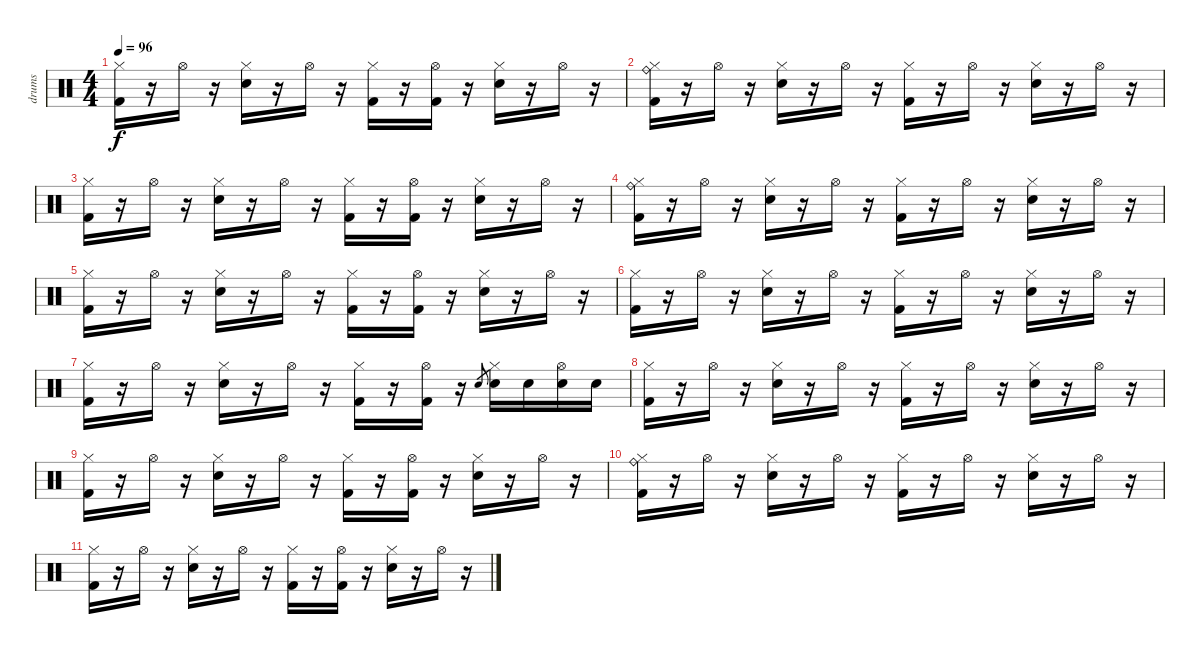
\track ("drums" "drums") {instrument percussion}
\staff {score}
\articulation defaults
\ts (4 4)
\tempo 96
\clef neutral
\ks c
("Kick (hit) 2" "Hi-Hat (closed)").16{dy f} r.16 "Hi-Hat (open)".16 r.16 ("Hi-Hat (closed)" "Electric Snare (hit)").16 r.16 "Hi-Hat (open)".16 r.16 ("Kick (hit) 2" "Hi-Hat (closed)").16 r.16 ("Kick (hit) 2" "Hi-Hat (open)").16 r.16 ("Hi-Hat (closed)" "Electric Snare (hit)").16 r.16 "Hi-Hat (open)".16 r.16 |
("Kick (hit) 2" "Hi-Hat (closed)" "Ride (bell)").16 r.16 "Hi-Hat (open)".16 r.16 ("Hi-Hat (closed)" "Electric Snare (hit)").16 r.16 "Hi-Hat (open)".16 r.16 ("Kick (hit) 2" "Hi-Hat (closed)").16 r.16 "Hi-Hat (open)".16 r.16 ("Hi-Hat (closed)" "Electric Snare (hit)").16 r.16 "Hi-Hat (open)".16 r.16 |
("Kick (hit) 2" "Hi-Hat (closed)").16 r.16 "Hi-Hat (open)".16 r.16 ("Hi-Hat (closed)" "Electric Snare (hit)").16 r.16 "Hi-Hat (open)".16 r.16 ("Kick (hit) 2" "Hi-Hat (closed)").16 r.16 ("Kick (hit) 2" "Hi-Hat (open)").16 r.16 ("Hi-Hat (closed)" "Electric Snare (hit)").16 r.16 "Hi-Hat (open)".16 r.16 |
("Kick (hit) 2" "Hi-Hat (closed)" "Ride (bell)").16 r.16 "Hi-Hat (open)".16 r.16 ("Hi-Hat (closed)" "Electric Snare (hit)").16 r.16 "Hi-Hat (open)".16 r.16 ("Kick (hit) 2" "Hi-Hat (closed)").16 r.16 "Hi-Hat (open)".16 r.16 ("Hi-Hat (closed)" "Electric Snare (hit)").16 r.16 "Hi-Hat (open)".16 r.16 |
("Kick (hit) 2" "Hi-Hat (closed)").16 r.16 "Hi-Hat (open)".16 r.16 ("Hi-Hat (closed)" "Electric Snare (hit)").16 r.16 "Hi-Hat (open)".16 r.16 ("Kick (hit) 2" "Hi-Hat (closed)").16 r.16 ("Kick (hit) 2" "Hi-Hat (open)").16 r.16 ("Hi-Hat (closed)" "Electric Snare (hit)").16 r.16 "Hi-Hat (open)".16 r.16 |
("Kick (hit) 2" "Hi-Hat (closed)").16 r.16 "Hi-Hat (open)".16 r.16 ("Hi-Hat (closed)" "Electric Snare (hit)").16 r.16 "Hi-Hat (open)".16 r.16 ("Kick (hit) 2" "Hi-Hat (closed)").16 r.16 "Hi-Hat (open)".16 r.16 ("Hi-Hat (closed)" "Electric Snare (hit)").16 r.16 "Hi-Hat (open)".16 r.16 |
("Kick (hit) 2" "Hi-Hat (closed)").16 r.16 "Hi-Hat (open)".16 r.16 ("Hi-Hat (closed)" "Electric Snare (hit)").16 r.16 "Hi-Hat (open)".16 r.16 ("Kick (hit) 2" "Hi-Hat (closed)").16 r.16 ("Kick (hit) 2" "Hi-Hat (open)").16 r.16 "Electric Snare (hit)".8{gr} ("Hi-Hat (closed)" "Electric Snare (hit)").16 "Electric Snare (hit)".16 ("Hi-Hat (open)" "Electric Snare (hit)").16 "Electric Snare (hit)".16 |
("Kick (hit) 2" "Hi-Hat (closed)").16 r.16 "Hi-Hat (open)".16 r.16 ("Hi-Hat (closed)" "Electric Snare (hit)").16 r.16 "Hi-Hat (open)".16 r.16 ("Kick (hit) 2" "Hi-Hat (closed)").16 r.16 "Hi-Hat (open)".16 r.16 ("Hi-Hat (closed)" "Electric Snare (hit)").16 r.16 "Hi-Hat (open)".16 r.16 |
("Kick (hit) 2" "Hi-Hat (closed)").16 r.16 "Hi-Hat (open)".16 r.16 ("Hi-Hat (closed)" "Electric Snare (hit)").16 r.16 "Hi-Hat (open)".16 r.16 ("Kick (hit) 2" "Hi-Hat (closed)").16 r.16 ("Kick (hit) 2" "Hi-Hat (open)").16 r.16 ("Hi-Hat (closed)" "Electric Snare (hit)").16 r.16 "Hi-Hat (open)".16 r.16 |
("Kick (hit) 2" "Hi-Hat (closed)" "Ride (bell)").16 r.16 "Hi-Hat (open)".16 r.16 ("Hi-Hat (closed)" "Electric Snare (hit)").16 r.16 "Hi-Hat (open)".16 r.16 ("Kick (hit) 2" "Hi-Hat (closed)").16 r.16 "Hi-Hat (open)".16 r.16 ("Hi-Hat (closed)" "Electric Snare (hit)").16 r.16 "Hi-Hat (open)".16 r.16 |
("Kick (hit) 2" "Hi-Hat (closed)").16 r.16 "Hi-Hat (open)".16 r.16 ("Hi-Hat (closed)" "Electric Snare (hit)").16 r.16 "Hi-Hat (open)".16 r.16 ("Kick (hit) 2" "Hi-Hat (closed)").16 r.16 ("Kick (hit) 2" "Hi-Hat (open)").16 r.16 ("Hi-Hat (closed)" "Electric Snare (hit)").16 r.16 "Hi-Hat (open)".16 r.16
